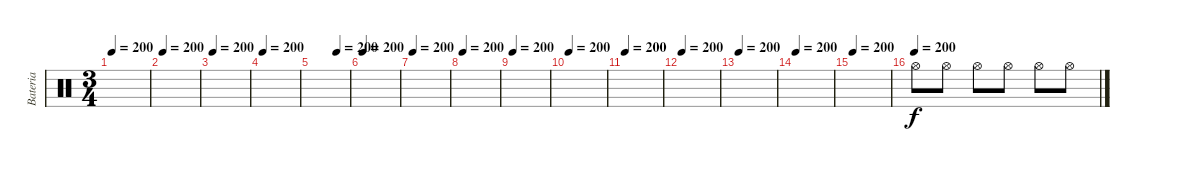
\track ("Bateria" "Bateria") {instrument percussion}
\staff {score}
\articulation defaults
\ts (3 4)
\tempo 200
\clef neutral
\ks c
|
\tempo 200
|
\tempo 200
|
\tempo 200
|
\tempo (200 0.6666666666666666)
|
\tempo 200
|
\tempo 200
|
\tempo 200
|
\tempo 200
|
\tempo 200
|
\tempo 200
|
\tempo 200
|
\tempo 200
|
\tempo 200
|
\tempo 200
|
\tempo (200)
"Hi-Hat (open)".8 "Hi-Hat (open)".8 "Hi-Hat (open)".8 "Hi-Hat (open)".8 "Hi-Hat (open)".8 "Hi-Hat (open)".8
